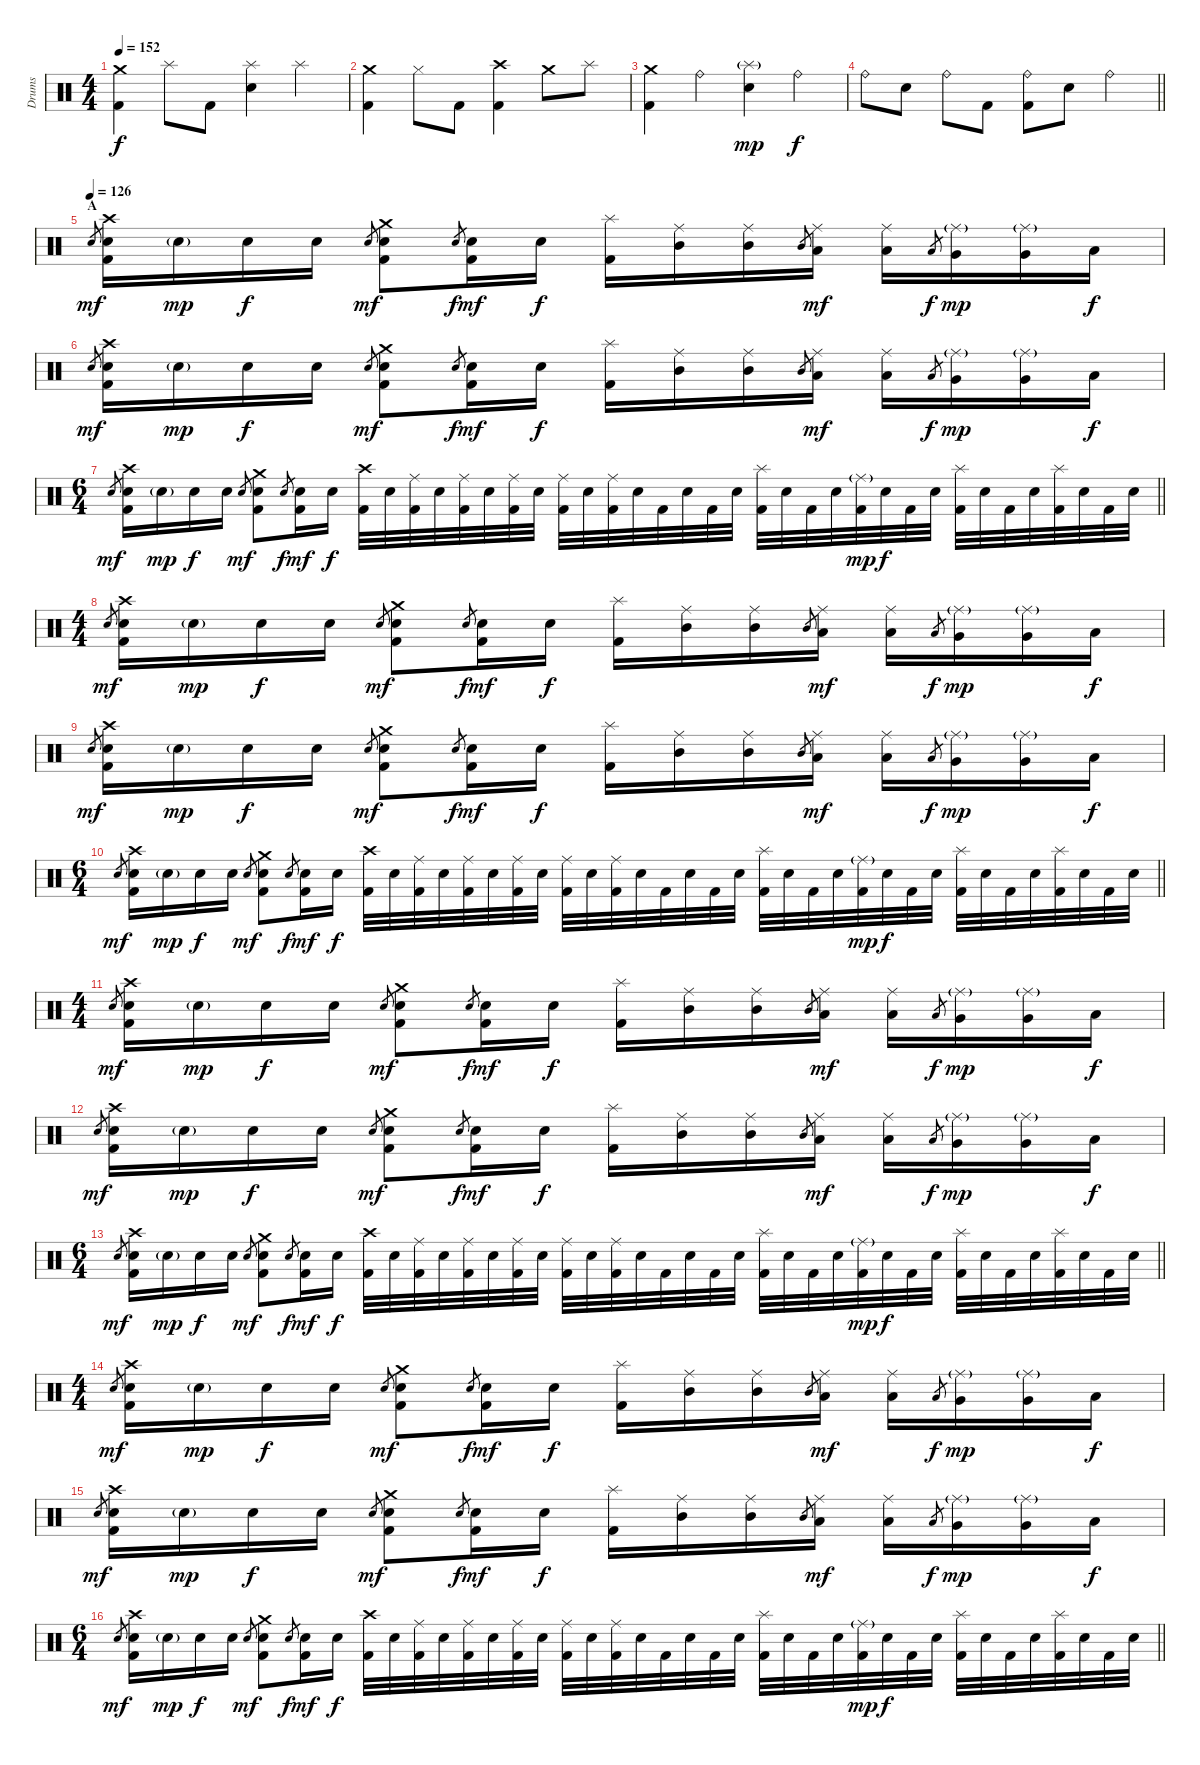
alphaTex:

\track ("Drums" "Drums") {instrument percussion}
\staff {score}
\articulation defaults
\ts (4 4)
\section ("" "")
\tempo 152
\clef neutral
\ks c
("Crash medium (hit)" "Kick (hit) 2").4{dy f} "Splash (hit)".8 "Kick (hit) 2".8 ("Splash (hit)" "Electric Snare (hit)").4 "Splash (hit)".4 |
("Crash medium (hit)" "Kick (hit) 2").4 "Hi-Hat (closed)".8 "Kick (hit) 2".8 ("Crash high (hit)" "Kick (hit) 2").4 "Crash medium (hit)".8 "Splash (hit)".8 |
("Crash medium (hit)" "Kick (hit) 2").4 "Ride (bell)".4 ("Splash (hit)"{g} "Electric Snare (hit)").4{dy mp} "Ride (bell)".4{dy f} |
\barLineRight lightlight "Ride (bell)".8 "Electric Snare (hit)".8 "Ride (bell)".8 "Kick (hit) 2".8
("Ride (bell)" "Kick (hit) 2").8 "Electric Snare (hit)".8 "Ride (bell)".4 |
\section ("" "A")
\tempo (126)
"Electric Snare (hit)".8{gr dy mf} ("Crash high (hit)" "Electric Snare (hit)" "Kick (hit) 2").16 "Electric Snare (hit)"{g}.16{dy mp} "Electric Snare (hit)".16{dy f} "Electric Snare (hit)".16 "Electric Snare (hit)".8{gr dy mf} ("Crash medium (hit)" "Electric Snare (hit)" "Kick (hit) 2").8 "Electric Snare (hit)".8{gr dy f} ("Electric Snare (hit)" "Kick (hit) 2").16{dy mf} "Electric Snare (hit)".16{dy f} ("Splash (hit)" "Kick (hit) 2").16 ("Ride (middle)" "Mid Tom (hit)").16 ("Ride (middle)" "Mid Tom (hit)").16 "Mid Tom (hit)".8{gr} ("Ride (middle)" "Low Tom (hit)").16{dy mf} ("Ride (middle)" "Low Tom (hit)").16 "Low Tom (hit)".8{gr dy f} ("Ride (middle)"{g} "Very Low Tom (hit)").16{dy mp} ("Ride (middle)"{g} "Very Low Tom (hit)").16 "Low Floor Tom (hit)".16{dy f} |
"Electric Snare (hit)".8{gr dy mf} ("Crash high (hit)" "Electric Snare (hit)" "Kick (hit) 2").16 "Electric Snare (hit)"{g}.16{dy mp} "Electric Snare (hit)".16{dy f} "Electric Snare (hit)".16 "Electric Snare (hit)".8{gr dy mf} ("Crash medium (hit)" "Electric Snare (hit)" "Kick (hit) 2").8 "Electric Snare (hit)".8{gr dy f} ("Electric Snare (hit)" "Kick (hit) 2").16{dy mf} "Electric Snare (hit)".16{dy f} ("Splash (hit)" "Kick (hit) 2").16 ("Ride (middle)" "Mid Tom (hit)").16 ("Ride (middle)" "Mid Tom (hit)").16 "Mid Tom (hit)".8{gr} ("Ride (middle)" "Low Tom (hit)").16{dy mf} ("Ride (middle)" "Low Tom (hit)").16 "Low Tom (hit)".8{gr dy f} ("Ride (middle)"{g} "Very Low Tom (hit)").16{dy mp} ("Ride (middle)"{g} "Very Low Tom (hit)").16 "Low Floor Tom (hit)".16{dy f} |
\ts (6 4)
\barLineRight lightlight "Electric Snare (hit)".8{gr dy mf}
("Crash high (hit)" "Electric Snare (hit)" "Kick (hit) 2").16 "Electric Snare (hit)"{g}.16{dy mp} "Electric Snare (hit)".16{dy f} "Electric Snare (hit)".16 "Electric Snare (hit)".8{gr dy mf} ("Crash medium (hit)" "Electric Snare (hit)" "Kick (hit) 2").8 "Electric Snare (hit)".8{gr dy f} ("Electric Snare (hit)" "Kick (hit) 2").16{dy mf} "Electric Snare (hit)".16{dy f} ("Crash high (hit)" "Kick (hit) 2").32 "Electric Snare (hit)".32 ("Ride (middle)" "Kick (hit) 2").32 "Electric Snare (hit)".32 ("Ride (middle)" "Kick (hit) 2").32 "Electric Snare (hit)".32 ("Ride (middle)" "Kick (hit) 2").32 "Electric Snare (hit)".32 ("Ride (middle)" "Kick (hit) 2").32 "Electric Snare (hit)".32 ("Ride (middle)" "Kick (hit) 2").32 "Electric Snare (hit)".32 "Kick (hit) 2".32 "Electric Snare (hit)".32 "Kick (hit) 2".32 "Electric Snare (hit)".32 ("Splash (hit)" "Kick (hit) 2").32 "Electric Snare (hit)".32 "Kick (hit) 2".32 "Electric Snare (hit)".32 ("Ride (middle)"{g} "Kick (hit) 2").32{dy mp} "Electric Snare (hit)".32{dy f} "Kick (hit) 2".32 "Electric Snare (hit)".32 ("Splash (hit)" "Kick (hit) 2").32 "Electric Snare (hit)".32 "Kick (hit) 2".32 "Electric Snare (hit)".32 ("Splash (hit)" "Kick (hit) 2").32 "Electric Snare (hit)".32 "Kick (hit) 2".32 "Electric Snare (hit)".32 |
\ts (4 4)
\section ("" "")
"Electric Snare (hit)".8{gr dy mf} ("Crash high (hit)" "Electric Snare (hit)" "Kick (hit) 2").16 "Electric Snare (hit)"{g}.16{dy mp} "Electric Snare (hit)".16{dy f} "Electric Snare (hit)".16 "Electric Snare (hit)".8{gr dy mf} ("Crash medium (hit)" "Electric Snare (hit)" "Kick (hit) 2").8 "Electric Snare (hit)".8{gr dy f} ("Electric Snare (hit)" "Kick (hit) 2").16{dy mf} "Electric Snare (hit)".16{dy f} ("Splash (hit)" "Kick (hit) 2").16 ("Ride (middle)" "Mid Tom (hit)").16 ("Ride (middle)" "Mid Tom (hit)").16 "Mid Tom (hit)".8{gr} ("Ride (middle)" "Low Tom (hit)").16{dy mf} ("Ride (middle)" "Low Tom (hit)").16 "Low Tom (hit)".8{gr dy f} ("Ride (middle)"{g} "Very Low Tom (hit)").16{dy mp} ("Ride (middle)"{g} "Very Low Tom (hit)").16 "Low Floor Tom (hit)".16{dy f} |
"Electric Snare (hit)".8{gr dy mf} ("Crash high (hit)" "Electric Snare (hit)" "Kick (hit) 2").16 "Electric Snare (hit)"{g}.16{dy mp} "Electric Snare (hit)".16{dy f} "Electric Snare (hit)".16 "Electric Snare (hit)".8{gr dy mf} ("Crash medium (hit)" "Electric Snare (hit)" "Kick (hit) 2").8 "Electric Snare (hit)".8{gr dy f} ("Electric Snare (hit)" "Kick (hit) 2").16{dy mf} "Electric Snare (hit)".16{dy f} ("Splash (hit)" "Kick (hit) 2").16 ("Ride (middle)" "Mid Tom (hit)").16 ("Ride (middle)" "Mid Tom (hit)").16 "Mid Tom (hit)".8{gr} ("Ride (middle)" "Low Tom (hit)").16{dy mf} ("Ride (middle)" "Low Tom (hit)").16 "Low Tom (hit)".8{gr dy f} ("Ride (middle)"{g} "Very Low Tom (hit)").16{dy mp} ("Ride (middle)"{g} "Very Low Tom (hit)").16 "Low Floor Tom (hit)".16{dy f} |
\ts (6 4)
\barLineRight lightlight "Electric Snare (hit)".8{gr dy mf}
("Crash high (hit)" "Electric Snare (hit)" "Kick (hit) 2").16 "Electric Snare (hit)"{g}.16{dy mp} "Electric Snare (hit)".16{dy f} "Electric Snare (hit)".16 "Electric Snare (hit)".8{gr dy mf} ("Crash medium (hit)" "Electric Snare (hit)" "Kick (hit) 2").8 "Electric Snare (hit)".8{gr dy f} ("Electric Snare (hit)" "Kick (hit) 2").16{dy mf} "Electric Snare (hit)".16{dy f} ("Crash high (hit)" "Kick (hit) 2").32 "Electric Snare (hit)".32 ("Ride (middle)" "Kick (hit) 2").32 "Electric Snare (hit)".32 ("Ride (middle)" "Kick (hit) 2").32 "Electric Snare (hit)".32 ("Ride (middle)" "Kick (hit) 2").32 "Electric Snare (hit)".32 ("Ride (middle)" "Kick (hit) 2").32 "Electric Snare (hit)".32 ("Ride (middle)" "Kick (hit) 2").32 "Electric Snare (hit)".32 "Kick (hit) 2".32 "Electric Snare (hit)".32 "Kick (hit) 2".32 "Electric Snare (hit)".32 ("Splash (hit)" "Kick (hit) 2").32 "Electric Snare (hit)".32 "Kick (hit) 2".32 "Electric Snare (hit)".32 ("Ride (middle)"{g} "Kick (hit) 2").32{dy mp} "Electric Snare (hit)".32{dy f} "Kick (hit) 2".32 "Electric Snare (hit)".32 ("Splash (hit)" "Kick (hit) 2").32 "Electric Snare (hit)".32 "Kick (hit) 2".32 "Electric Snare (hit)".32 ("Splash (hit)" "Kick (hit) 2").32 "Electric Snare (hit)".32 "Kick (hit) 2".32 "Electric Snare (hit)".32 |
\ts (4 4)
\section ("" "")
"Electric Snare (hit)".8{gr dy mf} ("Crash high (hit)" "Electric Snare (hit)" "Kick (hit) 2").16 "Electric Snare (hit)"{g}.16{dy mp} "Electric Snare (hit)".16{dy f} "Electric Snare (hit)".16 "Electric Snare (hit)".8{gr dy mf} ("Crash medium (hit)" "Electric Snare (hit)" "Kick (hit) 2").8 "Electric Snare (hit)".8{gr dy f} ("Electric Snare (hit)" "Kick (hit) 2").16{dy mf} "Electric Snare (hit)".16{dy f} ("Splash (hit)" "Kick (hit) 2").16 ("Ride (middle)" "Mid Tom (hit)").16 ("Ride (middle)" "Mid Tom (hit)").16 "Mid Tom (hit)".8{gr} ("Ride (middle)" "Low Tom (hit)").16{dy mf} ("Ride (middle)" "Low Tom (hit)").16 "Low Tom (hit)".8{gr dy f} ("Ride (middle)"{g} "Very Low Tom (hit)").16{dy mp} ("Ride (middle)"{g} "Very Low Tom (hit)").16 "Low Floor Tom (hit)".16{dy f} |
"Electric Snare (hit)".8{gr dy mf} ("Crash high (hit)" "Electric Snare (hit)" "Kick (hit) 2").16 "Electric Snare (hit)"{g}.16{dy mp} "Electric Snare (hit)".16{dy f} "Electric Snare (hit)".16 "Electric Snare (hit)".8{gr dy mf} ("Crash medium (hit)" "Electric Snare (hit)" "Kick (hit) 2").8 "Electric Snare (hit)".8{gr dy f} ("Electric Snare (hit)" "Kick (hit) 2").16{dy mf} "Electric Snare (hit)".16{dy f} ("Splash (hit)" "Kick (hit) 2").16 ("Ride (middle)" "Mid Tom (hit)").16 ("Ride (middle)" "Mid Tom (hit)").16 "Mid Tom (hit)".8{gr} ("Ride (middle)" "Low Tom (hit)").16{dy mf} ("Ride (middle)" "Low Tom (hit)").16 "Low Tom (hit)".8{gr dy f} ("Ride (middle)"{g} "Very Low Tom (hit)").16{dy mp} ("Ride (middle)"{g} "Very Low Tom (hit)").16 "Low Floor Tom (hit)".16{dy f} |
\ts (6 4)
\barLineRight lightlight "Electric Snare (hit)".8{gr dy mf}
("Crash high (hit)" "Electric Snare (hit)" "Kick (hit) 2").16 "Electric Snare (hit)"{g}.16{dy mp} "Electric Snare (hit)".16{dy f} "Electric Snare (hit)".16 "Electric Snare (hit)".8{gr dy mf} ("Crash medium (hit)" "Electric Snare (hit)" "Kick (hit) 2").8 "Electric Snare (hit)".8{gr dy f} ("Electric Snare (hit)" "Kick (hit) 2").16{dy mf} "Electric Snare (hit)".16{dy f} ("Crash high (hit)" "Kick (hit) 2").32 "Electric Snare (hit)".32 ("Ride (middle)" "Kick (hit) 2").32 "Electric Snare (hit)".32 ("Ride (middle)" "Kick (hit) 2").32 "Electric Snare (hit)".32 ("Ride (middle)" "Kick (hit) 2").32 "Electric Snare (hit)".32 ("Ride (middle)" "Kick (hit) 2").32 "Electric Snare (hit)".32 ("Ride (middle)" "Kick (hit) 2").32 "Electric Snare (hit)".32 "Kick (hit) 2".32 "Electric Snare (hit)".32 "Kick (hit) 2".32 "Electric Snare (hit)".32 ("Splash (hit)" "Kick (hit) 2").32 "Electric Snare (hit)".32 "Kick (hit) 2".32 "Electric Snare (hit)".32 ("Ride (middle)"{g} "Kick (hit) 2").32{dy mp} "Electric Snare (hit)".32{dy f} "Kick (hit) 2".32 "Electric Snare (hit)".32 ("Splash (hit)" "Kick (hit) 2").32 "Electric Snare (hit)".32 "Kick (hit) 2".32 "Electric Snare (hit)".32 ("Splash (hit)" "Kick (hit) 2").32 "Electric Snare (hit)".32 "Kick (hit) 2".32 "Electric Snare (hit)".32 |
\ts (4 4)
\section ("" "")
"Electric Snare (hit)".8{gr dy mf} ("Crash high (hit)" "Electric Snare (hit)" "Kick (hit) 2").16 "Electric Snare (hit)"{g}.16{dy mp} "Electric Snare (hit)".16{dy f} "Electric Snare (hit)".16 "Electric Snare (hit)".8{gr dy mf} ("Crash medium (hit)" "Electric Snare (hit)" "Kick (hit) 2").8 "Electric Snare (hit)".8{gr dy f} ("Electric Snare (hit)" "Kick (hit) 2").16{dy mf} "Electric Snare (hit)".16{dy f} ("Splash (hit)" "Kick (hit) 2").16 ("Ride (middle)" "Mid Tom (hit)").16 ("Ride (middle)" "Mid Tom (hit)").16 "Mid Tom (hit)".8{gr} ("Ride (middle)" "Low Tom (hit)").16{dy mf} ("Ride (middle)" "Low Tom (hit)").16 "Low Tom (hit)".8{gr dy f} ("Ride (middle)"{g} "Very Low Tom (hit)").16{dy mp} ("Ride (middle)"{g} "Very Low Tom (hit)").16 "Low Floor Tom (hit)".16{dy f} |
"Electric Snare (hit)".8{gr dy mf} ("Crash high (hit)" "Electric Snare (hit)" "Kick (hit) 2").16 "Electric Snare (hit)"{g}.16{dy mp} "Electric Snare (hit)".16{dy f} "Electric Snare (hit)".16 "Electric Snare (hit)".8{gr dy mf} ("Crash medium (hit)" "Electric Snare (hit)" "Kick (hit) 2").8 "Electric Snare (hit)".8{gr dy f} ("Electric Snare (hit)" "Kick (hit) 2").16{dy mf} "Electric Snare (hit)".16{dy f} ("Splash (hit)" "Kick (hit) 2").16 ("Ride (middle)" "Mid Tom (hit)").16 ("Ride (middle)" "Mid Tom (hit)").16 "Mid Tom (hit)".8{gr} ("Ride (middle)" "Low Tom (hit)").16{dy mf} ("Ride (middle)" "Low Tom (hit)").16 "Low Tom (hit)".8{gr dy f} ("Ride (middle)"{g} "Very Low Tom (hit)").16{dy mp} ("Ride (middle)"{g} "Very Low Tom (hit)").16 "Low Floor Tom (hit)".16{dy f} |
\ts (6 4)
\barLineRight lightlight "Electric Snare (hit)".8{gr dy mf}
("Crash high (hit)" "Electric Snare (hit)" "Kick (hit) 2").16 "Electric Snare (hit)"{g}.16{dy mp} "Electric Snare (hit)".16{dy f} "Electric Snare (hit)".16 "Electric Snare (hit)".8{gr dy mf} ("Crash medium (hit)" "Electric Snare (hit)" "Kick (hit) 2").8 "Electric Snare (hit)".8{gr dy f} ("Electric Snare (hit)" "Kick (hit) 2").16{dy mf} "Electric Snare (hit)".16{dy f} ("Crash high (hit)" "Kick (hit) 2").32 "Electric Snare (hit)".32 ("Ride (middle)" "Kick (hit) 2").32 "Electric Snare (hit)".32 ("Ride (middle)" "Kick (hit) 2").32 "Electric Snare (hit)".32 ("Ride (middle)" "Kick (hit) 2").32 "Electric Snare (hit)".32 ("Ride (middle)" "Kick (hit) 2").32 "Electric Snare (hit)".32 ("Ride (middle)" "Kick (hit) 2").32 "Electric Snare (hit)".32 "Kick (hit) 2".32 "Electric Snare (hit)".32 "Kick (hit) 2".32 "Electric Snare (hit)".32 ("Splash (hit)" "Kick (hit) 2").32 "Electric Snare (hit)".32 "Kick (hit) 2".32 "Electric Snare (hit)".32 ("Ride (middle)"{g} "Kick (hit) 2").32{dy mp} "Electric Snare (hit)".32{dy f} "Kick (hit) 2".32 "Electric Snare (hit)".32 ("Splash (hit)" "Kick (hit) 2").32 "Electric Snare (hit)".32 "Kick (hit) 2".32 "Electric Snare (hit)".32 ("Splash (hit)" "Kick (hit) 2").32 "Electric Snare (hit)".32 "Kick (hit) 2".32 "Electric Snare (hit)".32
